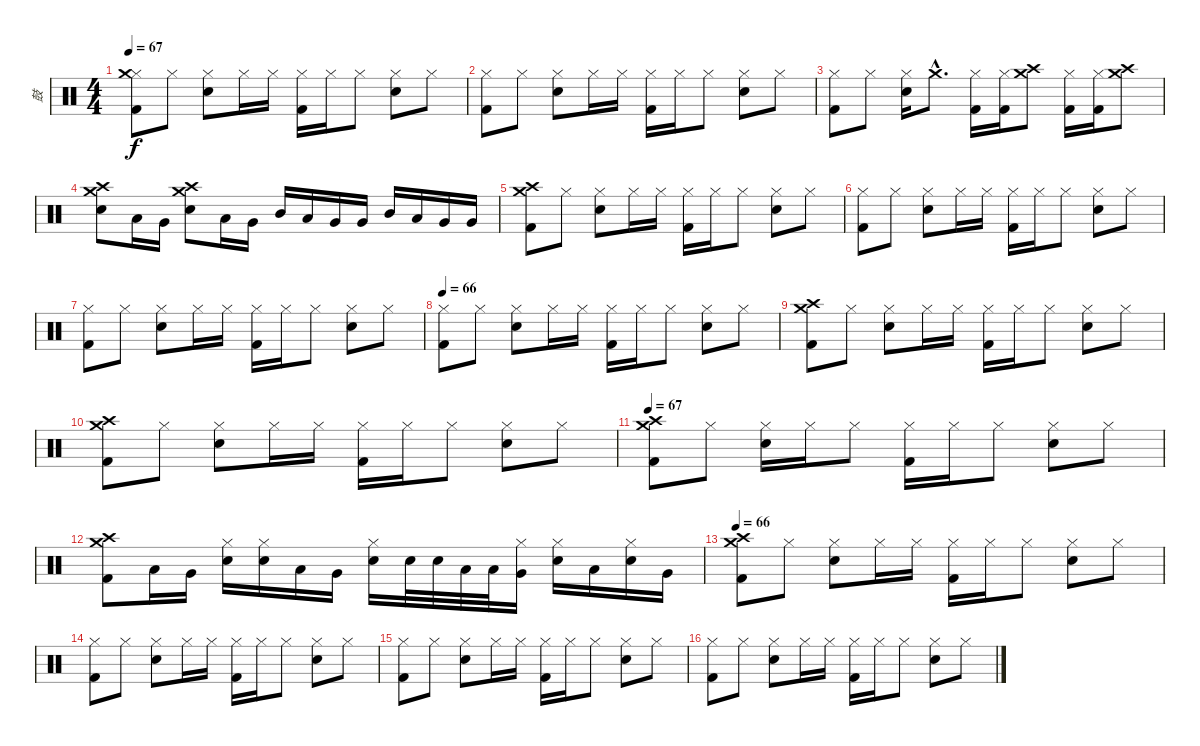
\track ("鼓" "鼓") {instrument percussion}
\staff {score}
\articulation defaults
\ts (4 4)
\tempo 67
\clef neutral
\ks c
("Hi-Hat (closed)" "Crash medium (hit)" "Kick (hit) 2").8{dy f} "Hi-Hat (closed)".8 ("Hi-Hat (closed)" "Snare (hit) 2").8 "Hi-Hat (closed)".16 "Hi-Hat (closed)".16 ("Hi-Hat (closed)" "Kick (hit) 2").16 "Hi-Hat (closed)".16 "Hi-Hat (closed)".8 ("Hi-Hat (closed)" "Snare (hit) 2").8 "Hi-Hat (closed)".8 |
("Hi-Hat (closed)" "Kick (hit) 2").8 "Hi-Hat (closed)".8 ("Hi-Hat (closed)" "Snare (hit) 2").8 "Hi-Hat (closed)".16 "Hi-Hat (closed)".16 ("Hi-Hat (closed)" "Kick (hit) 2").16 "Hi-Hat (closed)".16 "Hi-Hat (closed)".8 ("Hi-Hat (closed)" "Snare (hit) 2").8 "Hi-Hat (closed)".8 |
("Hi-Hat (closed)" "Kick (hit) 2").8 "Hi-Hat (closed)".8 ("Hi-Hat (closed)" "Snare (hit) 2").16 "Crash medium (hit)"{hac}.8{d} ("Hi-Hat (closed)" "Kick (hit) 2").16 ("Hi-Hat (closed)" "Kick (hit) 2").16 ("Crash medium (hit)" "Crash high (hit)").8 ("Hi-Hat (closed)" "Kick (hit) 2").16 ("Hi-Hat (closed)" "Kick (hit) 2").16 ("Crash medium (hit)" "Crash high (hit)").8 |
("Crash high (hit)" "Crash medium (hit)" "Snare (hit) 2").8 "Low Tom (hit)".16 "Very Low Tom (hit)".16 ("Crash high (hit)" "Crash medium (hit)" "Snare (hit) 2").8 "Low Tom (hit)".16 "Very Low Tom (hit)".16 "Mid Tom (hit)".16 "Low Tom (hit)".16 "Very Low Tom (hit)".16 "Very Low Tom (hit)".16 "Mid Tom (hit)".16 "Low Tom (hit)".16 "Very Low Tom (hit)".16 "Very Low Tom (hit)".16 |
("Crash high (hit)" "Crash medium (hit)" "Kick (hit) 2").8 "Hi-Hat (closed)".8 ("Hi-Hat (closed)" "Snare (hit) 2").8 "Hi-Hat (closed)".16 "Hi-Hat (closed)".16 ("Hi-Hat (closed)" "Kick (hit) 2").16 "Hi-Hat (closed)".16 "Hi-Hat (closed)".8 ("Hi-Hat (closed)" "Snare (hit) 2").8 "Hi-Hat (closed)".8 |
("Hi-Hat (closed)" "Kick (hit) 2").8 "Hi-Hat (closed)".8 ("Hi-Hat (closed)" "Snare (hit) 2").8 "Hi-Hat (closed)".16 "Hi-Hat (closed)".16 ("Hi-Hat (closed)" "Kick (hit) 2").16 "Hi-Hat (closed)".16 "Hi-Hat (closed)".8 ("Hi-Hat (closed)" "Snare (hit) 2").8 "Hi-Hat (closed)".8 |
("Hi-Hat (closed)" "Kick (hit) 2").8 "Hi-Hat (closed)".8 ("Hi-Hat (closed)" "Snare (hit) 2").8 "Hi-Hat (closed)".16 "Hi-Hat (closed)".16 ("Hi-Hat (closed)" "Kick (hit) 2").16 "Hi-Hat (closed)".16 "Hi-Hat (closed)".8 ("Hi-Hat (closed)" "Snare (hit) 2").8 "Hi-Hat (closed)".8 |
\tempo 66
("Hi-Hat (closed)" "Kick (hit) 2").8 "Hi-Hat (closed)".8 ("Hi-Hat (closed)" "Snare (hit) 2").8 "Hi-Hat (closed)".16 "Hi-Hat (closed)".16 ("Hi-Hat (closed)" "Kick (hit) 2").16 "Hi-Hat (closed)".16 "Hi-Hat (closed)".8 ("Hi-Hat (closed)" "Snare (hit) 2").8 "Hi-Hat (closed)".8 |
("Crash high (hit)" "Crash medium (hit)" "Kick (hit) 2").8 "Hi-Hat (closed)".8 ("Hi-Hat (closed)" "Snare (hit) 2").8 "Hi-Hat (closed)".16 "Hi-Hat (closed)".16 ("Hi-Hat (closed)" "Kick (hit) 2").16 "Hi-Hat (closed)".16 "Hi-Hat (closed)".8 ("Hi-Hat (closed)" "Snare (hit) 2").8 "Hi-Hat (closed)".8 |
("Crash high (hit)" "Crash medium (hit)" "Kick (hit) 2").8 "Hi-Hat (closed)".8 ("Hi-Hat (closed)" "Snare (hit) 2").8 "Hi-Hat (closed)".16 "Hi-Hat (closed)".16 ("Hi-Hat (closed)" "Kick (hit) 2").16 "Hi-Hat (closed)".16 "Hi-Hat (closed)".8 ("Hi-Hat (closed)" "Snare (hit) 2").8 "Hi-Hat (closed)".8 |
\tempo 67
("Crash high (hit)" "Crash medium (hit)" "Kick (hit) 2").8 "Hi-Hat (closed)".8 ("Hi-Hat (closed)" "Snare (hit) 2").16 "Hi-Hat (closed)".16 "Hi-Hat (closed)".8 ("Hi-Hat (closed)" "Kick (hit) 2").16 "Hi-Hat (closed)".16 "Hi-Hat (closed)".8 ("Hi-Hat (closed)" "Snare (hit) 2").8 "Hi-Hat (closed)".8 |
("Crash high (hit)" "Crash medium (hit)" "Kick (hit) 2").8 "Low Tom (hit)".16 "Very Low Tom (hit)".16 ("Hi-Hat (closed)" "Snare (hit) 2").16 ("Hi-Hat (closed)" "Snare (hit) 2").16 "Low Tom (hit)".16 "Very Low Tom (hit)".16 ("Hi-Hat (closed)" "Snare (hit) 2").16 "Snare (hit) 2".32 "Snare (hit) 2".32 "Low Tom (hit)".32 "Low Tom (hit)".32 ("Hi-Hat (closed)" "Very Low Tom (hit)").16 ("Hi-Hat (closed)" "Snare (hit) 2").16 "Low Tom (hit)".16 ("Hi-Hat (closed)" "Snare (hit) 2").16 "Very Low Tom (hit)".16 |
\tempo 66
("Crash high (hit)" "Crash medium (hit)" "Kick (hit) 2").8 "Hi-Hat (closed)".8 ("Hi-Hat (closed)" "Snare (hit) 2").8 "Hi-Hat (closed)".16 "Hi-Hat (closed)".16 ("Hi-Hat (closed)" "Kick (hit) 2").16 "Hi-Hat (closed)".16 "Hi-Hat (closed)".8 ("Hi-Hat (closed)" "Snare (hit) 2").8 "Hi-Hat (closed)".8 |
("Hi-Hat (closed)" "Kick (hit) 2").8 "Hi-Hat (closed)".8 ("Hi-Hat (closed)" "Snare (hit) 2").8 "Hi-Hat (closed)".16 "Hi-Hat (closed)".16 ("Hi-Hat (closed)" "Kick (hit) 2").16 "Hi-Hat (closed)".16 "Hi-Hat (closed)".8 ("Hi-Hat (closed)" "Snare (hit) 2").8 "Hi-Hat (closed)".8 |
("Hi-Hat (closed)" "Kick (hit) 2").8 "Hi-Hat (closed)".8 ("Hi-Hat (closed)" "Snare (hit) 2").8 "Hi-Hat (closed)".16 "Hi-Hat (closed)".16 ("Hi-Hat (closed)" "Kick (hit) 2").16 "Hi-Hat (closed)".16 "Hi-Hat (closed)".8 ("Hi-Hat (closed)" "Snare (hit) 2").8 "Hi-Hat (closed)".8 |
("Hi-Hat (closed)" "Kick (hit) 2").8 "Hi-Hat (closed)".8 ("Hi-Hat (closed)" "Snare (hit) 2").8 "Hi-Hat (closed)".16 "Hi-Hat (closed)".16 ("Hi-Hat (closed)" "Kick (hit) 2").16 "Hi-Hat (closed)".16 "Hi-Hat (closed)".8 ("Hi-Hat (closed)" "Snare (hit) 2").8 "Hi-Hat (closed)".8
